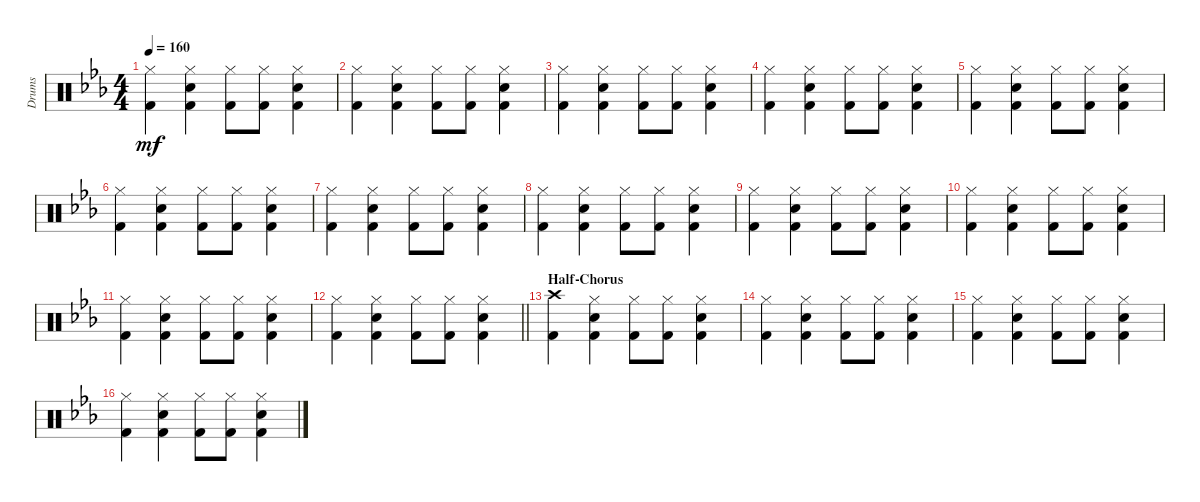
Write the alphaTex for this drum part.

\track ("Drums" "Drums") {instrument percussion}
\staff {score}
\articulation defaults
\ts (4 4)
\tempo 160
\clef neutral
\ks eb
("Hi-Hat (closed)" "Kick (hit) 2").4{dy mf} ("Hi-Hat (closed)" "Electric Snare (hit)" "Kick (hit) 2").4 ("Hi-Hat (closed)" "Kick (hit) 2").8 ("Hi-Hat (closed)" "Kick (hit) 2").8 ("Hi-Hat (closed)" "Electric Snare (hit)" "Kick (hit) 2").4 |
("Hi-Hat (closed)" "Kick (hit) 2").4 ("Hi-Hat (closed)" "Electric Snare (hit)" "Kick (hit) 2").4 ("Hi-Hat (closed)" "Kick (hit) 2").8 ("Hi-Hat (closed)" "Kick (hit) 2").8 ("Hi-Hat (closed)" "Electric Snare (hit)" "Kick (hit) 2").4 |
("Hi-Hat (closed)" "Kick (hit) 2").4 ("Hi-Hat (closed)" "Electric Snare (hit)" "Kick (hit) 2").4 ("Hi-Hat (closed)" "Kick (hit) 2").8 ("Hi-Hat (closed)" "Kick (hit) 2").8 ("Hi-Hat (closed)" "Electric Snare (hit)" "Kick (hit) 2").4 |
("Hi-Hat (closed)" "Kick (hit) 2").4 ("Hi-Hat (closed)" "Electric Snare (hit)" "Kick (hit) 2").4 ("Hi-Hat (closed)" "Kick (hit) 2").8 ("Hi-Hat (closed)" "Kick (hit) 2").8 ("Hi-Hat (closed)" "Electric Snare (hit)" "Kick (hit) 2").4 |
("Hi-Hat (closed)" "Kick (hit) 2").4 ("Hi-Hat (closed)" "Electric Snare (hit)" "Kick (hit) 2").4 ("Hi-Hat (closed)" "Kick (hit) 2").8 ("Hi-Hat (closed)" "Kick (hit) 2").8 ("Hi-Hat (closed)" "Electric Snare (hit)" "Kick (hit) 2").4 |
("Hi-Hat (closed)" "Kick (hit) 2").4 ("Hi-Hat (closed)" "Electric Snare (hit)" "Kick (hit) 2").4 ("Hi-Hat (closed)" "Kick (hit) 2").8 ("Hi-Hat (closed)" "Kick (hit) 2").8 ("Hi-Hat (closed)" "Electric Snare (hit)" "Kick (hit) 2").4 |
("Hi-Hat (closed)" "Kick (hit) 2").4 ("Hi-Hat (closed)" "Electric Snare (hit)" "Kick (hit) 2").4 ("Hi-Hat (closed)" "Kick (hit) 2").8 ("Hi-Hat (closed)" "Kick (hit) 2").8 ("Hi-Hat (closed)" "Electric Snare (hit)" "Kick (hit) 2").4 |
("Hi-Hat (closed)" "Kick (hit) 2").4 ("Hi-Hat (closed)" "Electric Snare (hit)" "Kick (hit) 2").4 ("Hi-Hat (closed)" "Kick (hit) 2").8 ("Hi-Hat (closed)" "Kick (hit) 2").8 ("Hi-Hat (closed)" "Electric Snare (hit)" "Kick (hit) 2").4 |
("Hi-Hat (closed)" "Kick (hit) 2").4 ("Hi-Hat (closed)" "Electric Snare (hit)" "Kick (hit) 2").4 ("Hi-Hat (closed)" "Kick (hit) 2").8 ("Hi-Hat (closed)" "Kick (hit) 2").8 ("Hi-Hat (closed)" "Electric Snare (hit)" "Kick (hit) 2").4 |
("Hi-Hat (closed)" "Kick (hit) 2").4 ("Hi-Hat (closed)" "Electric Snare (hit)" "Kick (hit) 2").4 ("Hi-Hat (closed)" "Kick (hit) 2").8 ("Hi-Hat (closed)" "Kick (hit) 2").8 ("Hi-Hat (closed)" "Electric Snare (hit)" "Kick (hit) 2").4 |
("Hi-Hat (closed)" "Kick (hit) 2").4 ("Hi-Hat (closed)" "Electric Snare (hit)" "Kick (hit) 2").4 ("Hi-Hat (closed)" "Kick (hit) 2").8 ("Hi-Hat (closed)" "Kick (hit) 2").8 ("Hi-Hat (closed)" "Electric Snare (hit)" "Kick (hit) 2").4 |
\barLineRight lightlight
("Hi-Hat (closed)" "Kick (hit) 2").4 ("Hi-Hat (closed)" "Electric Snare (hit)" "Kick (hit) 2").4 ("Hi-Hat (closed)" "Kick (hit) 2").8 ("Hi-Hat (closed)" "Kick (hit) 2").8 ("Hi-Hat (closed)" "Electric Snare (hit)" "Kick (hit) 2").4 |
\section ("" "Half-Chorus")
("Crash high (hit)" "Kick (hit) 2").4 ("Hi-Hat (closed)" "Electric Snare (hit)" "Kick (hit) 2").4 ("Hi-Hat (closed)" "Kick (hit) 2").8 ("Hi-Hat (closed)" "Kick (hit) 2").8 ("Hi-Hat (closed)" "Electric Snare (hit)" "Kick (hit) 2").4 |
("Hi-Hat (closed)" "Kick (hit) 2").4 ("Hi-Hat (closed)" "Electric Snare (hit)" "Kick (hit) 2").4 ("Hi-Hat (closed)" "Kick (hit) 2").8 ("Hi-Hat (closed)" "Kick (hit) 2").8 ("Hi-Hat (closed)" "Electric Snare (hit)" "Kick (hit) 2").4 |
("Hi-Hat (closed)" "Kick (hit) 2").4 ("Hi-Hat (closed)" "Electric Snare (hit)" "Kick (hit) 2").4 ("Hi-Hat (closed)" "Kick (hit) 2").8 ("Hi-Hat (closed)" "Kick (hit) 2").8 ("Hi-Hat (closed)" "Electric Snare (hit)" "Kick (hit) 2").4 |
("Hi-Hat (closed)" "Kick (hit) 2").4 ("Hi-Hat (closed)" "Electric Snare (hit)" "Kick (hit) 2").4 ("Hi-Hat (closed)" "Kick (hit) 2").8 ("Hi-Hat (closed)" "Kick (hit) 2").8 ("Hi-Hat (closed)" "Electric Snare (hit)" "Kick (hit) 2").4
